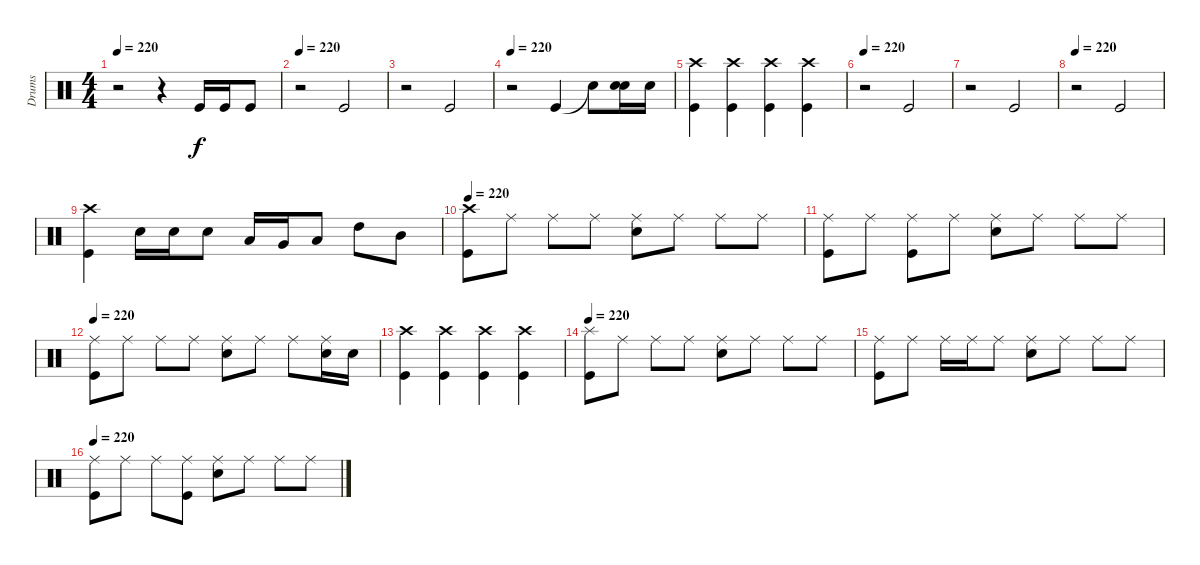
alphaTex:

\track ("Drums" "Drums") {instrument percussion}
\staff {score}
\articulation defaults
\ts (4 4)
\tempo 220
\clef neutral
\ks c
r.2{dy f} r.4 "Kick (hit)".16 "Kick (hit)".16 "Kick (hit)".8 |
\tempo 220
r.2 "Kick (hit)".2 |
r.2 "Kick (hit)".2 |
\tempo 220
r.2 "Kick (hit)".4 "Snare (hit)"{t}.8 ("Snare (hit) 2" "Snare (hit)").16 "Snare (hit) 2".16 |
("Crash high (hit)" "Kick (hit)").4 ("Crash high (hit)" "Kick (hit)").4 ("Crash high (hit)" "Kick (hit)").4 ("Crash high (hit)" "Kick (hit)").4 |
\tempo 220
r.2 "Kick (hit)".2 |
r.2 "Kick (hit)".2 |
\tempo 220
r.2 "Kick (hit)".2 |
("Crash high (hit)" "Kick (hit)").4 "Snare (hit) 2".16 "Snare (hit) 2".16 "Snare (hit) 2".8 "Low Floor Tom (hit)".16 "Very Low Tom (hit)".16 "Low Tom (hit)".8 "High Tom (hit)".8 "Mid Tom (hit)".8 |
\tempo 220
("Crash high (hit)" "Kick (hit)").8 "Ride (middle)".8 "Ride (middle)".8 "Ride (middle)".8 ("Ride (middle)" "Snare (hit) 2").8 "Ride (middle)".8 "Ride (middle)".8 "Ride (middle)".8 |
("Ride (middle)" "Kick (hit)").8 "Ride (middle)".8 ("Ride (middle)" "Kick (hit)").8 "Ride (middle)".8 ("Ride (middle)" "Snare (hit) 2").8 "Ride (middle)".8 "Ride (middle)".8 "Ride (middle)".8 |
\tempo 220
("Ride (middle)" "Kick (hit)").8 "Ride (middle)".8 "Ride (middle)".8 "Ride (middle)".8 ("Ride (middle)" "Snare (hit) 2").8 "Ride (middle)".8 "Ride (middle)".8 ("Ride (middle)" "Snare (hit) 2").16 "Snare (hit) 2".16 |
("Crash high (hit)" "Kick (hit)").4 ("Crash high (hit)" "Kick (hit)").4 ("Crash high (hit)" "Kick (hit)").4 ("Crash high (hit)" "Kick (hit)").4 |
\tempo 220
("Splash (hit)" "Kick (hit)").8 "Ride (middle)".8 "Ride (middle)".8 "Ride (middle)".8 ("Ride (middle)" "Snare (hit) 2").8 "Ride (middle)".8 "Ride (middle)".8 "Ride (middle)".8 |
("Ride (middle)" "Kick (hit)").8 "Ride (middle)".8 "Ride (middle)".16 "Ride (middle)".16 "Ride (middle)".8 ("Ride (middle)" "Snare (hit) 2").8 "Ride (middle)".8 "Ride (middle)".8 "Ride (middle)".8 |
\tempo 220
("Ride (middle)" "Kick (hit)").8 "Ride (middle)".8 "Ride (middle)".8 ("Ride (middle)" "Kick (hit)").8 ("Ride (middle)" "Snare (hit) 2").8 "Ride (middle)".8 "Ride (middle)".8 "Ride (middle)".8
